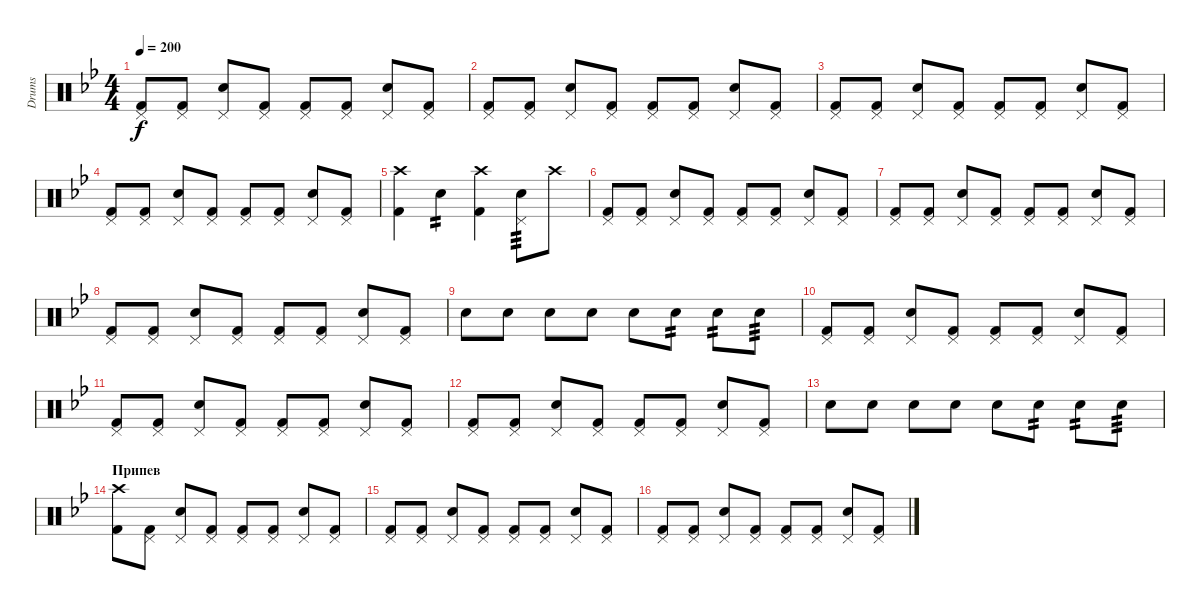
\track ("Drums" "Drums") {instrument percussion}
\staff {score}
\articulation defaults
\ts (4 4)
\tempo 200
\clef neutral
\ks bb
("Pedal Hi-Hat (hit)" "Kick (hit) 2").8{dy f} ("Pedal Hi-Hat (hit)" "Kick (hit) 2").8 ("Pedal Hi-Hat (hit)" "Electric Snare (hit)").8 ("Pedal Hi-Hat (hit)" "Kick (hit) 2").8 ("Pedal Hi-Hat (hit)" "Kick (hit) 2").8 ("Pedal Hi-Hat (hit)" "Kick (hit) 2").8 ("Pedal Hi-Hat (hit)" "Electric Snare (hit)").8 ("Pedal Hi-Hat (hit)" "Kick (hit) 2").8 |
("Pedal Hi-Hat (hit)" "Kick (hit) 2").8 ("Pedal Hi-Hat (hit)" "Kick (hit) 2").8 ("Pedal Hi-Hat (hit)" "Electric Snare (hit)").8 ("Pedal Hi-Hat (hit)" "Kick (hit) 2").8 ("Pedal Hi-Hat (hit)" "Kick (hit) 2").8 ("Pedal Hi-Hat (hit)" "Kick (hit) 2").8 ("Pedal Hi-Hat (hit)" "Electric Snare (hit)").8 ("Pedal Hi-Hat (hit)" "Kick (hit) 2").8 |
("Pedal Hi-Hat (hit)" "Kick (hit) 2").8 ("Pedal Hi-Hat (hit)" "Kick (hit) 2").8 ("Pedal Hi-Hat (hit)" "Electric Snare (hit)").8 ("Pedal Hi-Hat (hit)" "Kick (hit) 2").8 ("Pedal Hi-Hat (hit)" "Kick (hit) 2").8 ("Pedal Hi-Hat (hit)" "Kick (hit) 2").8 ("Pedal Hi-Hat (hit)" "Electric Snare (hit)").8 ("Pedal Hi-Hat (hit)" "Kick (hit) 2").8 |
("Pedal Hi-Hat (hit)" "Kick (hit) 2").8 ("Pedal Hi-Hat (hit)" "Kick (hit) 2").8 ("Pedal Hi-Hat (hit)" "Electric Snare (hit)").8 ("Pedal Hi-Hat (hit)" "Kick (hit) 2").8 ("Pedal Hi-Hat (hit)" "Kick (hit) 2").8 ("Pedal Hi-Hat (hit)" "Kick (hit) 2").8 ("Pedal Hi-Hat (hit)" "Electric Snare (hit)").8 ("Pedal Hi-Hat (hit)" "Kick (hit) 2").8 |
("Crash high (hit)" "Kick (hit) 2").4 "Electric Snare (hit)".4{tp 2} ("Crash high (hit)" "Kick (hit) 2").4 ("Pedal Hi-Hat (hit)" "Electric Snare (hit)").8{tp 3} "Crash high (hit)".8 |
("Pedal Hi-Hat (hit)" "Kick (hit) 2").8 ("Pedal Hi-Hat (hit)" "Kick (hit) 2").8 ("Pedal Hi-Hat (hit)" "Electric Snare (hit)").8 ("Pedal Hi-Hat (hit)" "Kick (hit) 2").8 ("Pedal Hi-Hat (hit)" "Kick (hit) 2").8 ("Pedal Hi-Hat (hit)" "Kick (hit) 2").8 ("Pedal Hi-Hat (hit)" "Electric Snare (hit)").8 ("Pedal Hi-Hat (hit)" "Kick (hit) 2").8 |
("Pedal Hi-Hat (hit)" "Kick (hit) 2").8 ("Pedal Hi-Hat (hit)" "Kick (hit) 2").8 ("Pedal Hi-Hat (hit)" "Electric Snare (hit)").8 ("Pedal Hi-Hat (hit)" "Kick (hit) 2").8 ("Pedal Hi-Hat (hit)" "Kick (hit) 2").8 ("Pedal Hi-Hat (hit)" "Kick (hit) 2").8 ("Pedal Hi-Hat (hit)" "Electric Snare (hit)").8 ("Pedal Hi-Hat (hit)" "Kick (hit) 2").8 |
("Pedal Hi-Hat (hit)" "Kick (hit) 2").8 ("Pedal Hi-Hat (hit)" "Kick (hit) 2").8 ("Pedal Hi-Hat (hit)" "Electric Snare (hit)").8 ("Pedal Hi-Hat (hit)" "Kick (hit) 2").8 ("Pedal Hi-Hat (hit)" "Kick (hit) 2").8 ("Pedal Hi-Hat (hit)" "Kick (hit) 2").8 ("Pedal Hi-Hat (hit)" "Electric Snare (hit)").8 ("Pedal Hi-Hat (hit)" "Kick (hit) 2").8 |
"Electric Snare (hit)".8 "Electric Snare (hit)".8 "Electric Snare (hit)".8 "Electric Snare (hit)".8 "Electric Snare (hit)".8 "Electric Snare (hit)".8{tp 2} "Electric Snare (hit)".8{tp 2} "Electric Snare (hit)".8{tp 3} |
("Pedal Hi-Hat (hit)" "Kick (hit) 2").8 ("Pedal Hi-Hat (hit)" "Kick (hit) 2").8 ("Pedal Hi-Hat (hit)" "Electric Snare (hit)").8 ("Pedal Hi-Hat (hit)" "Kick (hit) 2").8 ("Pedal Hi-Hat (hit)" "Kick (hit) 2").8 ("Pedal Hi-Hat (hit)" "Kick (hit) 2").8 ("Pedal Hi-Hat (hit)" "Electric Snare (hit)").8 ("Pedal Hi-Hat (hit)" "Kick (hit) 2").8 |
("Pedal Hi-Hat (hit)" "Kick (hit) 2").8 ("Pedal Hi-Hat (hit)" "Kick (hit) 2").8 ("Pedal Hi-Hat (hit)" "Electric Snare (hit)").8 ("Pedal Hi-Hat (hit)" "Kick (hit) 2").8 ("Pedal Hi-Hat (hit)" "Kick (hit) 2").8 ("Pedal Hi-Hat (hit)" "Kick (hit) 2").8 ("Pedal Hi-Hat (hit)" "Electric Snare (hit)").8 ("Pedal Hi-Hat (hit)" "Kick (hit) 2").8 |
("Pedal Hi-Hat (hit)" "Kick (hit) 2").8 ("Pedal Hi-Hat (hit)" "Kick (hit) 2").8 ("Pedal Hi-Hat (hit)" "Electric Snare (hit)").8 ("Pedal Hi-Hat (hit)" "Kick (hit) 2").8 ("Pedal Hi-Hat (hit)" "Kick (hit) 2").8 ("Pedal Hi-Hat (hit)" "Kick (hit) 2").8 ("Pedal Hi-Hat (hit)" "Electric Snare (hit)").8 ("Pedal Hi-Hat (hit)" "Kick (hit) 2").8 |
"Electric Snare (hit)".8 "Electric Snare (hit)".8 "Electric Snare (hit)".8 "Electric Snare (hit)".8 "Electric Snare (hit)".8 "Electric Snare (hit)".8{tp 2} "Electric Snare (hit)".8{tp 2} "Electric Snare (hit)".8{tp 3} |
\section ("" "Припев")
("Crash high (hit)" "Kick (hit) 2").8 ("Pedal Hi-Hat (hit)" "Kick (hit) 2").8 ("Pedal Hi-Hat (hit)" "Electric Snare (hit)").8 ("Pedal Hi-Hat (hit)" "Kick (hit) 2").8 ("Pedal Hi-Hat (hit)" "Kick (hit) 2").8 ("Pedal Hi-Hat (hit)" "Kick (hit) 2").8 ("Pedal Hi-Hat (hit)" "Electric Snare (hit)").8 ("Pedal Hi-Hat (hit)" "Kick (hit) 2").8 |
("Pedal Hi-Hat (hit)" "Kick (hit) 2").8 ("Pedal Hi-Hat (hit)" "Kick (hit) 2").8 ("Pedal Hi-Hat (hit)" "Electric Snare (hit)").8 ("Pedal Hi-Hat (hit)" "Kick (hit) 2").8 ("Pedal Hi-Hat (hit)" "Kick (hit) 2").8 ("Pedal Hi-Hat (hit)" "Kick (hit) 2").8 ("Pedal Hi-Hat (hit)" "Electric Snare (hit)").8 ("Pedal Hi-Hat (hit)" "Kick (hit) 2").8 |
("Pedal Hi-Hat (hit)" "Kick (hit) 2").8 ("Pedal Hi-Hat (hit)" "Kick (hit) 2").8 ("Pedal Hi-Hat (hit)" "Electric Snare (hit)").8 ("Pedal Hi-Hat (hit)" "Kick (hit) 2").8 ("Pedal Hi-Hat (hit)" "Kick (hit) 2").8 ("Pedal Hi-Hat (hit)" "Kick (hit) 2").8 ("Pedal Hi-Hat (hit)" "Electric Snare (hit)").8 ("Pedal Hi-Hat (hit)" "Kick (hit) 2").8
